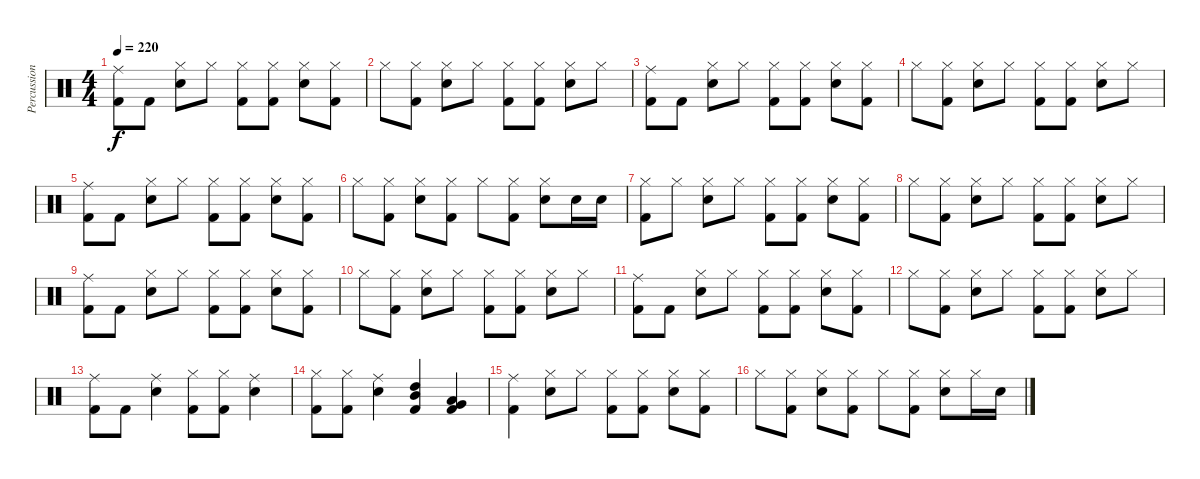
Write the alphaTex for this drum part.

\track ("Percussion" "Percussion") {instrument percussion}
\staff {score}
\articulation defaults
\ts (4 4)
\tempo 220
\clef neutral
\ks c
("Ride (middle)" "Kick (hit) 2").8{dy f} "Kick (hit) 2".8 ("Hi-Hat (closed)" "Electric Snare (hit)").8 "Hi-Hat (closed)".8 ("Hi-Hat (closed)" "Kick (hit) 2").8 ("Hi-Hat (closed)" "Kick (hit) 2").8 ("Hi-Hat (closed)" "Electric Snare (hit)").8 ("Hi-Hat (closed)" "Kick (hit) 2").8 |
"Hi-Hat (closed)".8 ("Hi-Hat (closed)" "Kick (hit) 2").8 ("Hi-Hat (closed)" "Electric Snare (hit)").8 "Hi-Hat (closed)".8 ("Hi-Hat (closed)" "Kick (hit) 2").8 ("Hi-Hat (closed)" "Kick (hit) 2").8 ("Hi-Hat (closed)" "Electric Snare (hit)").8 "Hi-Hat (closed)".8 |
("Ride (middle)" "Kick (hit) 2").8 "Kick (hit) 2".8 ("Hi-Hat (closed)" "Electric Snare (hit)").8 "Hi-Hat (closed)".8 ("Hi-Hat (closed)" "Kick (hit) 2").8 ("Hi-Hat (closed)" "Kick (hit) 2").8 ("Hi-Hat (closed)" "Electric Snare (hit)").8 ("Hi-Hat (closed)" "Kick (hit) 2").8 |
"Hi-Hat (closed)".8 ("Hi-Hat (closed)" "Kick (hit) 2").8 ("Hi-Hat (closed)" "Electric Snare (hit)").8 "Hi-Hat (closed)".8 ("Hi-Hat (closed)" "Kick (hit) 2").8 ("Hi-Hat (closed)" "Kick (hit) 2").8 ("Hi-Hat (closed)" "Electric Snare (hit)").8 "Hi-Hat (closed)".8 |
("Ride (middle)" "Kick (hit) 2").8 "Kick (hit) 2".8 ("Hi-Hat (closed)" "Electric Snare (hit)").8 "Hi-Hat (closed)".8 ("Hi-Hat (closed)" "Kick (hit) 2").8 ("Hi-Hat (closed)" "Kick (hit) 2").8 ("Hi-Hat (closed)" "Electric Snare (hit)").8 ("Hi-Hat (closed)" "Kick (hit) 2").8 |
"Hi-Hat (closed)".8 ("Hi-Hat (closed)" "Kick (hit) 2").8 ("Hi-Hat (closed)" "Electric Snare (hit)").8 ("Hi-Hat (closed)" "Kick (hit) 2").8 "Hi-Hat (closed)".8 ("Hi-Hat (closed)" "Kick (hit) 2").8 ("Hi-Hat (closed)" "Electric Snare (hit)").8 "Electric Snare (hit)".16 "Electric Snare (hit)".16 |
("Hi-Hat (closed)" "Kick (hit) 2").8 "Hi-Hat (closed)".8 ("Hi-Hat (closed)" "Electric Snare (hit)").8 "Hi-Hat (closed)".8 ("Hi-Hat (closed)" "Kick (hit) 2").8 ("Hi-Hat (closed)" "Kick (hit) 2").8 ("Hi-Hat (closed)" "Electric Snare (hit)").8 ("Hi-Hat (closed)" "Kick (hit) 2").8 |
"Hi-Hat (closed)".8 ("Hi-Hat (closed)" "Kick (hit) 2").8 ("Hi-Hat (closed)" "Electric Snare (hit)").8 "Hi-Hat (closed)".8 ("Hi-Hat (closed)" "Kick (hit) 2").8 ("Hi-Hat (closed)" "Kick (hit) 2").8 ("Hi-Hat (closed)" "Electric Snare (hit)").8 "Hi-Hat (closed)".8 |
("Ride (middle)" "Kick (hit) 2").8 "Kick (hit) 2".8 ("Hi-Hat (closed)" "Electric Snare (hit)").8 "Hi-Hat (closed)".8 ("Hi-Hat (closed)" "Kick (hit) 2").8 ("Hi-Hat (closed)" "Kick (hit) 2").8 ("Hi-Hat (closed)" "Electric Snare (hit)").8 ("Hi-Hat (closed)" "Kick (hit) 2").8 |
"Hi-Hat (closed)".8 ("Hi-Hat (closed)" "Kick (hit) 2").8 ("Hi-Hat (closed)" "Electric Snare (hit)").8 "Hi-Hat (closed)".8 ("Hi-Hat (closed)" "Kick (hit) 2").8 ("Hi-Hat (closed)" "Kick (hit) 2").8 ("Hi-Hat (closed)" "Electric Snare (hit)").8 "Hi-Hat (closed)".8 |
("Ride (middle)" "Kick (hit) 2").8 "Kick (hit) 2".8 ("Hi-Hat (closed)" "Electric Snare (hit)").8 "Hi-Hat (closed)".8 ("Hi-Hat (closed)" "Kick (hit) 2").8 ("Hi-Hat (closed)" "Kick (hit) 2").8 ("Hi-Hat (closed)" "Electric Snare (hit)").8 ("Hi-Hat (closed)" "Kick (hit) 2").8 |
"Hi-Hat (closed)".8 ("Hi-Hat (closed)" "Kick (hit) 2").8 ("Hi-Hat (closed)" "Electric Snare (hit)").8 "Hi-Hat (closed)".8 ("Hi-Hat (closed)" "Kick (hit) 2").8 ("Hi-Hat (closed)" "Kick (hit) 2").8 ("Hi-Hat (closed)" "Electric Snare (hit)").8 "Hi-Hat (closed)".8 |
("Ride (middle)" "Kick (hit) 2").8 "Kick (hit) 2".8 ("Ride (middle)" "Electric Snare (hit)").4 ("Hi-Hat (closed)" "Kick (hit) 2").8 ("Hi-Hat (closed)" "Kick (hit) 2").8 ("Ride (middle)" "Electric Snare (hit)").4 |
("Hi-Hat (closed)" "Kick (hit) 2").8 ("Hi-Hat (closed)" "Kick (hit) 2").8 ("Ride (middle)" "Electric Snare (hit)").4 ("High Tom (hit)" "Mid Tom (hit)" "Kick (hit) 2").4 ("Low Tom (hit)" "Very Low Tom (hit)" "Kick (hit) 2").4 |
("Ride (middle)" "Kick (hit) 2").4 ("Hi-Hat (closed)" "Electric Snare (hit)").8 "Hi-Hat (closed)".8 ("Hi-Hat (closed)" "Kick (hit) 2").8 ("Hi-Hat (closed)" "Kick (hit) 2").8 ("Hi-Hat (closed)" "Electric Snare (hit)").8 ("Hi-Hat (closed)" "Kick (hit) 2").8 |
"Hi-Hat (closed)".8 ("Hi-Hat (closed)" "Kick (hit) 2").8 ("Hi-Hat (closed)" "Electric Snare (hit)").8 ("Hi-Hat (closed)" "Kick (hit) 2").8 "Hi-Hat (closed)".8 ("Hi-Hat (closed)" "Kick (hit) 2").8 ("Hi-Hat (closed)" "Electric Snare (hit)").8 "Hi-Hat (closed)".16 "Electric Snare (hit)".16
